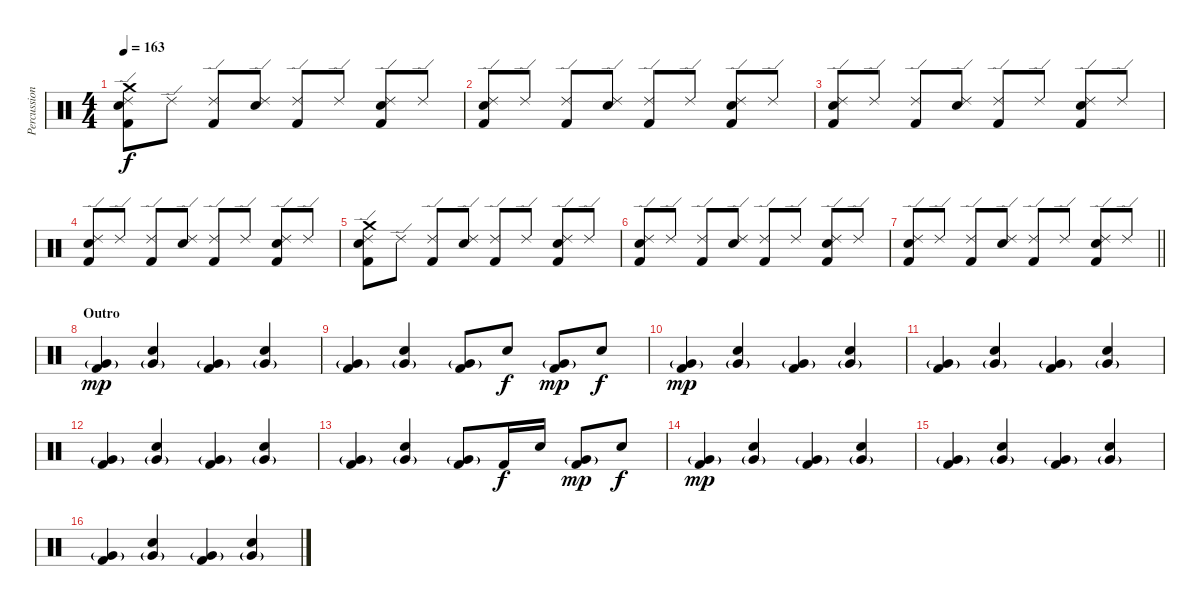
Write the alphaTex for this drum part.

\track ("Percussion" "Percussion") {instrument percussion}
\staff {score}
\articulation defaults
\ts (4 4)
\tempo 163
\clef neutral
\ks c
("Crash medium (hit)" "Ride (edge) 2" "Snare (hit) 2" "Kick (hit) 2").8{dy f} "Ride (edge) 2".8 ("Ride (edge) 2" "Kick (hit) 2").8 ("Ride (edge) 2" "Snare (hit) 2").8 ("Ride (edge) 2" "Kick (hit) 2").8 "Ride (edge) 2".8 ("Ride (edge) 2" "Snare (hit) 2" "Kick (hit) 2").8 "Ride (edge) 2".8 |
("Ride (edge) 2" "Snare (hit) 2" "Kick (hit) 2").8 "Ride (edge) 2".8 ("Ride (edge) 2" "Kick (hit) 2").8 ("Ride (edge) 2" "Snare (hit) 2").8 ("Ride (edge) 2" "Kick (hit) 2").8 "Ride (edge) 2".8 ("Ride (edge) 2" "Snare (hit) 2" "Kick (hit) 2").8 "Ride (edge) 2".8 |
("Ride (edge) 2" "Snare (hit) 2" "Kick (hit) 2").8 "Ride (edge) 2".8 ("Ride (edge) 2" "Kick (hit) 2").8 ("Ride (edge) 2" "Snare (hit) 2").8 ("Ride (edge) 2" "Kick (hit) 2").8 "Ride (edge) 2".8 ("Ride (edge) 2" "Snare (hit) 2" "Kick (hit) 2").8 "Ride (edge) 2".8 |
("Ride (edge) 2" "Snare (hit) 2" "Kick (hit) 2").8 "Ride (edge) 2".8 ("Ride (edge) 2" "Kick (hit) 2").8 ("Ride (edge) 2" "Snare (hit) 2").8 ("Ride (edge) 2" "Kick (hit) 2").8 "Ride (edge) 2".8 ("Ride (edge) 2" "Snare (hit) 2" "Kick (hit) 2").8 "Ride (edge) 2".8 |
("Crash medium (hit)" "Ride (edge) 2" "Snare (hit) 2" "Kick (hit) 2").8 "Ride (edge) 2".8 ("Ride (edge) 2" "Kick (hit) 2").8 ("Ride (edge) 2" "Snare (hit) 2").8 ("Ride (edge) 2" "Kick (hit) 2").8 "Ride (edge) 2".8 ("Ride (edge) 2" "Snare (hit) 2" "Kick (hit) 2").8 "Ride (edge) 2".8 |
("Ride (edge) 2" "Snare (hit) 2" "Kick (hit) 2").8 "Ride (edge) 2".8 ("Ride (edge) 2" "Kick (hit) 2").8 ("Ride (edge) 2" "Snare (hit) 2").8 ("Ride (edge) 2" "Kick (hit) 2").8 "Ride (edge) 2".8 ("Ride (edge) 2" "Snare (hit) 2" "Kick (hit) 2").8 "Ride (edge) 2".8 |
\barLineRight lightlight
("Ride (edge) 2" "Snare (hit) 2" "Kick (hit) 2").8 "Ride (edge) 2".8 ("Ride (edge) 2" "Kick (hit) 2").8 ("Ride (edge) 2" "Snare (hit) 2").8 ("Ride (edge) 2" "Kick (hit) 2").8 "Ride (edge) 2".8 ("Ride (edge) 2" "Snare (hit) 2" "Kick (hit) 2").8 "Ride (edge) 2".8 |
\section ("" "Outro")
("Very Low Tom (hit)"{g} "Kick (hit) 2").4{dy mp} ("Very Low Tom (hit)"{g} "Snare (hit) 2").4 ("Very Low Tom (hit)"{g} "Kick (hit) 2").4 ("Very Low Tom (hit)"{g} "Snare (hit) 2").4 |
("Very Low Tom (hit)"{g} "Kick (hit) 2").4 ("Very Low Tom (hit)"{g} "Snare (hit) 2").4 ("Very Low Tom (hit)"{g} "Kick (hit) 2").8 "Snare (hit) 2".8{dy f} ("Very Low Tom (hit)"{g} "Kick (hit) 2").8{dy mp} "Snare (hit) 2".8{dy f} |
("Very Low Tom (hit)"{g} "Kick (hit) 2").4{dy mp} ("Very Low Tom (hit)"{g} "Snare (hit) 2").4 ("Very Low Tom (hit)"{g} "Kick (hit) 2").4 ("Very Low Tom (hit)"{g} "Snare (hit) 2").4 |
("Very Low Tom (hit)"{g} "Kick (hit) 2").4 ("Very Low Tom (hit)"{g} "Snare (hit) 2").4 ("Very Low Tom (hit)"{g} "Kick (hit) 2").4 ("Very Low Tom (hit)"{g} "Snare (hit) 2").4 |
("Very Low Tom (hit)"{g} "Kick (hit) 2").4 ("Very Low Tom (hit)"{g} "Snare (hit) 2").4 ("Very Low Tom (hit)"{g} "Kick (hit) 2").4 ("Very Low Tom (hit)"{g} "Snare (hit) 2").4 |
("Very Low Tom (hit)"{g} "Kick (hit) 2").4 ("Very Low Tom (hit)"{g} "Snare (hit) 2").4 ("Very Low Tom (hit)"{g} "Kick (hit) 2").8 "Kick (hit) 2".16{dy f} "Snare (hit) 2".16 ("Very Low Tom (hit)"{g} "Kick (hit) 2").8{dy mp} "Snare (hit) 2".8{dy f} |
("Very Low Tom (hit)"{g} "Kick (hit) 2").4{dy mp} ("Very Low Tom (hit)"{g} "Snare (hit) 2").4 ("Very Low Tom (hit)"{g} "Kick (hit) 2").4 ("Very Low Tom (hit)"{g} "Snare (hit) 2").4 |
("Very Low Tom (hit)"{g} "Kick (hit) 2").4 ("Very Low Tom (hit)"{g} "Snare (hit) 2").4 ("Very Low Tom (hit)"{g} "Kick (hit) 2").4 ("Very Low Tom (hit)"{g} "Snare (hit) 2").4 |
("Very Low Tom (hit)"{g} "Kick (hit) 2").4 ("Very Low Tom (hit)"{g} "Snare (hit) 2").4 ("Very Low Tom (hit)"{g} "Kick (hit) 2").4 ("Very Low Tom (hit)"{g} "Snare (hit) 2").4
